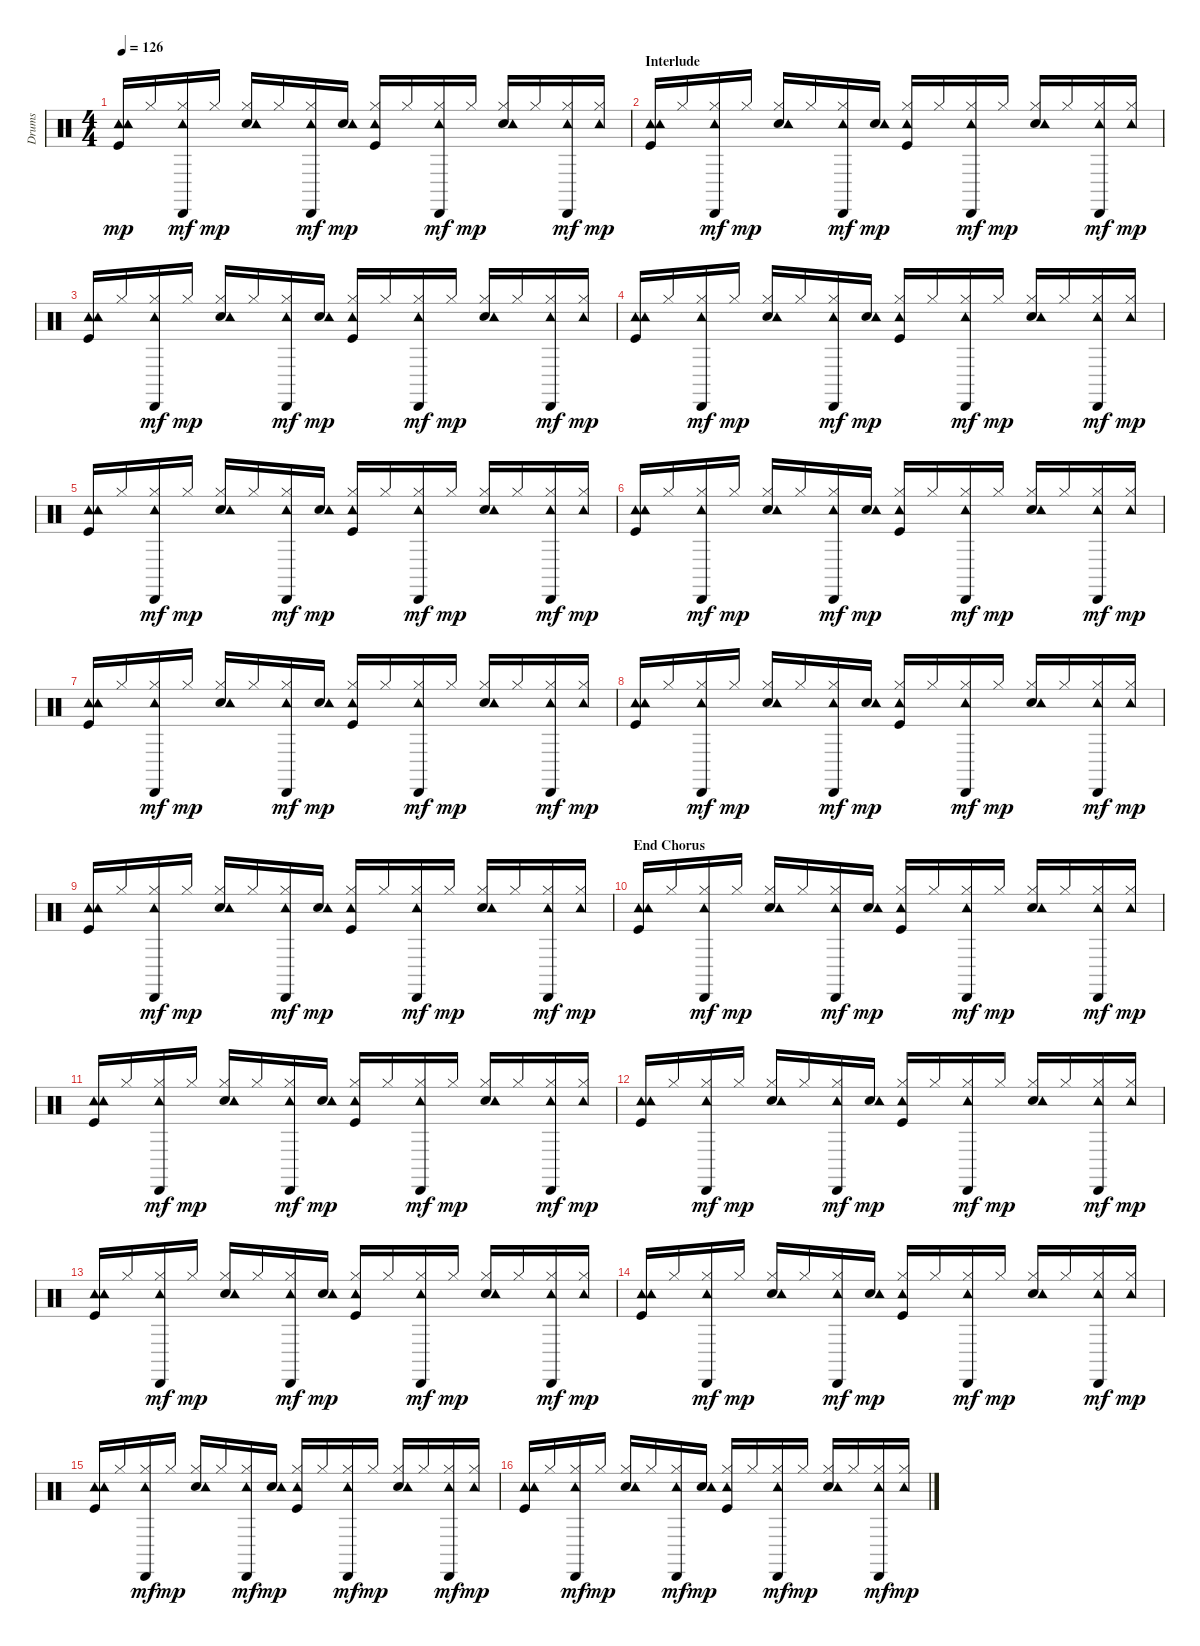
\track ("Drums" "Drums") {instrument percussion}
\staff {score}
\articulation defaults
\ts (4 4)
\tempo 126
\clef neutral
\ks c
("Kick (hit)" "Tambourine (hit)" "Tambourine (hit)").16{dy mp} "Hi-Hat (closed)".16 ("Hi-Hat (closed)" "Tambourine (hit)" "Cabasa (hit)").16{dy mf} "Hi-Hat (closed)".16{dy mp} ("Snare (hit) 2" "Hi-Hat (closed)" "Tambourine (hit)").16 "Hi-Hat (closed)".16 ("Hi-Hat (closed)" "Tambourine (hit)" "Cabasa (hit)").16{dy mf} ("Snare (hit) 2" "Tambourine (hit)").16{dy mp} ("Kick (hit)" "Hi-Hat (closed)" "Tambourine (hit)").16 "Hi-Hat (closed)".16 ("Hi-Hat (closed)" "Tambourine (hit)" "Cabasa (hit)").16{dy mf} "Hi-Hat (closed)".16{dy mp} ("Snare (hit) 2" "Hi-Hat (closed)" "Tambourine (hit)").16 "Hi-Hat (closed)".16 ("Hi-Hat (closed)" "Tambourine (hit)" "Cabasa (hit)").16{dy mf} ("Hi-Hat (closed)" "Tambourine (hit)").16{dy mp} |
\section ("" "Interlude")
("Kick (hit)" "Tambourine (hit)" "Tambourine (hit)").16 "Hi-Hat (closed)".16 ("Hi-Hat (closed)" "Tambourine (hit)" "Cabasa (hit)").16{dy mf} "Hi-Hat (closed)".16{dy mp} ("Snare (hit) 2" "Hi-Hat (closed)" "Tambourine (hit)").16 "Hi-Hat (closed)".16 ("Hi-Hat (closed)" "Tambourine (hit)" "Cabasa (hit)").16{dy mf} ("Snare (hit) 2" "Tambourine (hit)").16{dy mp} ("Kick (hit)" "Hi-Hat (closed)" "Tambourine (hit)").16 "Hi-Hat (closed)".16 ("Hi-Hat (closed)" "Tambourine (hit)" "Cabasa (hit)").16{dy mf} "Hi-Hat (closed)".16{dy mp} ("Snare (hit) 2" "Hi-Hat (closed)" "Tambourine (hit)").16 "Hi-Hat (closed)".16 ("Hi-Hat (closed)" "Tambourine (hit)" "Cabasa (hit)").16{dy mf} ("Hi-Hat (closed)" "Tambourine (hit)").16{dy mp} |
("Kick (hit)" "Tambourine (hit)" "Tambourine (hit)").16 "Hi-Hat (closed)".16 ("Hi-Hat (closed)" "Tambourine (hit)" "Cabasa (hit)").16{dy mf} "Hi-Hat (closed)".16{dy mp} ("Snare (hit) 2" "Hi-Hat (closed)" "Tambourine (hit)").16 "Hi-Hat (closed)".16 ("Hi-Hat (closed)" "Tambourine (hit)" "Cabasa (hit)").16{dy mf} ("Snare (hit) 2" "Tambourine (hit)").16{dy mp} ("Kick (hit)" "Hi-Hat (closed)" "Tambourine (hit)").16 "Hi-Hat (closed)".16 ("Hi-Hat (closed)" "Tambourine (hit)" "Cabasa (hit)").16{dy mf} "Hi-Hat (closed)".16{dy mp} ("Snare (hit) 2" "Hi-Hat (closed)" "Tambourine (hit)").16 "Hi-Hat (closed)".16 ("Hi-Hat (closed)" "Tambourine (hit)" "Cabasa (hit)").16{dy mf} ("Hi-Hat (closed)" "Tambourine (hit)").16{dy mp} |
("Kick (hit)" "Tambourine (hit)" "Tambourine (hit)").16 "Hi-Hat (closed)".16 ("Hi-Hat (closed)" "Tambourine (hit)" "Cabasa (hit)").16{dy mf} "Hi-Hat (closed)".16{dy mp} ("Snare (hit) 2" "Hi-Hat (closed)" "Tambourine (hit)").16 "Hi-Hat (closed)".16 ("Hi-Hat (closed)" "Tambourine (hit)" "Cabasa (hit)").16{dy mf} ("Snare (hit) 2" "Tambourine (hit)").16{dy mp} ("Kick (hit)" "Hi-Hat (closed)" "Tambourine (hit)").16 "Hi-Hat (closed)".16 ("Hi-Hat (closed)" "Tambourine (hit)" "Cabasa (hit)").16{dy mf} "Hi-Hat (closed)".16{dy mp} ("Snare (hit) 2" "Hi-Hat (closed)" "Tambourine (hit)").16 "Hi-Hat (closed)".16 ("Hi-Hat (closed)" "Tambourine (hit)" "Cabasa (hit)").16{dy mf} ("Hi-Hat (closed)" "Tambourine (hit)").16{dy mp} |
("Kick (hit)" "Tambourine (hit)" "Tambourine (hit)").16 "Hi-Hat (closed)".16 ("Hi-Hat (closed)" "Tambourine (hit)" "Cabasa (hit)").16{dy mf} "Hi-Hat (closed)".16{dy mp} ("Snare (hit) 2" "Hi-Hat (closed)" "Tambourine (hit)").16 "Hi-Hat (closed)".16 ("Hi-Hat (closed)" "Tambourine (hit)" "Cabasa (hit)").16{dy mf} ("Snare (hit) 2" "Tambourine (hit)").16{dy mp} ("Kick (hit)" "Hi-Hat (closed)" "Tambourine (hit)").16 "Hi-Hat (closed)".16 ("Hi-Hat (closed)" "Tambourine (hit)" "Cabasa (hit)").16{dy mf} "Hi-Hat (closed)".16{dy mp} ("Snare (hit) 2" "Hi-Hat (closed)" "Tambourine (hit)").16 "Hi-Hat (closed)".16 ("Hi-Hat (closed)" "Tambourine (hit)" "Cabasa (hit)").16{dy mf} ("Hi-Hat (closed)" "Tambourine (hit)").16{dy mp} |
("Kick (hit)" "Tambourine (hit)" "Tambourine (hit)").16 "Hi-Hat (closed)".16 ("Hi-Hat (closed)" "Tambourine (hit)" "Cabasa (hit)").16{dy mf} "Hi-Hat (closed)".16{dy mp} ("Snare (hit) 2" "Hi-Hat (closed)" "Tambourine (hit)").16 "Hi-Hat (closed)".16 ("Hi-Hat (closed)" "Tambourine (hit)" "Cabasa (hit)").16{dy mf} ("Snare (hit) 2" "Tambourine (hit)").16{dy mp} ("Kick (hit)" "Hi-Hat (closed)" "Tambourine (hit)").16 "Hi-Hat (closed)".16 ("Hi-Hat (closed)" "Tambourine (hit)" "Cabasa (hit)").16{dy mf} "Hi-Hat (closed)".16{dy mp} ("Snare (hit) 2" "Hi-Hat (closed)" "Tambourine (hit)").16 "Hi-Hat (closed)".16 ("Hi-Hat (closed)" "Tambourine (hit)" "Cabasa (hit)").16{dy mf} ("Hi-Hat (closed)" "Tambourine (hit)").16{dy mp} |
("Kick (hit)" "Tambourine (hit)" "Tambourine (hit)").16 "Hi-Hat (closed)".16 ("Hi-Hat (closed)" "Tambourine (hit)" "Cabasa (hit)").16{dy mf} "Hi-Hat (closed)".16{dy mp} ("Snare (hit) 2" "Hi-Hat (closed)" "Tambourine (hit)").16 "Hi-Hat (closed)".16 ("Hi-Hat (closed)" "Tambourine (hit)" "Cabasa (hit)").16{dy mf} ("Snare (hit) 2" "Tambourine (hit)").16{dy mp} ("Kick (hit)" "Hi-Hat (closed)" "Tambourine (hit)").16 "Hi-Hat (closed)".16 ("Hi-Hat (closed)" "Tambourine (hit)" "Cabasa (hit)").16{dy mf} "Hi-Hat (closed)".16{dy mp} ("Snare (hit) 2" "Hi-Hat (closed)" "Tambourine (hit)").16 "Hi-Hat (closed)".16 ("Hi-Hat (closed)" "Tambourine (hit)" "Cabasa (hit)").16{dy mf} ("Hi-Hat (closed)" "Tambourine (hit)").16{dy mp} |
("Kick (hit)" "Tambourine (hit)" "Tambourine (hit)").16 "Hi-Hat (closed)".16 ("Hi-Hat (closed)" "Tambourine (hit)" "Cabasa (hit)").16{dy mf} "Hi-Hat (closed)".16{dy mp} ("Snare (hit) 2" "Hi-Hat (closed)" "Tambourine (hit)").16 "Hi-Hat (closed)".16 ("Hi-Hat (closed)" "Tambourine (hit)" "Cabasa (hit)").16{dy mf} ("Snare (hit) 2" "Tambourine (hit)").16{dy mp} ("Kick (hit)" "Hi-Hat (closed)" "Tambourine (hit)").16 "Hi-Hat (closed)".16 ("Hi-Hat (closed)" "Tambourine (hit)" "Cabasa (hit)").16{dy mf} "Hi-Hat (closed)".16{dy mp} ("Snare (hit) 2" "Hi-Hat (closed)" "Tambourine (hit)").16 "Hi-Hat (closed)".16 ("Hi-Hat (closed)" "Tambourine (hit)" "Cabasa (hit)").16{dy mf} ("Hi-Hat (closed)" "Tambourine (hit)").16{dy mp} |
("Kick (hit)" "Tambourine (hit)" "Tambourine (hit)").16 "Hi-Hat (closed)".16 ("Hi-Hat (closed)" "Tambourine (hit)" "Cabasa (hit)").16{dy mf} "Hi-Hat (closed)".16{dy mp} ("Snare (hit) 2" "Hi-Hat (closed)" "Tambourine (hit)").16 "Hi-Hat (closed)".16 ("Hi-Hat (closed)" "Tambourine (hit)" "Cabasa (hit)").16{dy mf} ("Snare (hit) 2" "Tambourine (hit)").16{dy mp} ("Kick (hit)" "Hi-Hat (closed)" "Tambourine (hit)").16 "Hi-Hat (closed)".16 ("Hi-Hat (closed)" "Tambourine (hit)" "Cabasa (hit)").16{dy mf} "Hi-Hat (closed)".16{dy mp} ("Snare (hit) 2" "Hi-Hat (closed)" "Tambourine (hit)").16 "Hi-Hat (closed)".16 ("Hi-Hat (closed)" "Tambourine (hit)" "Cabasa (hit)").16{dy mf} ("Hi-Hat (closed)" "Tambourine (hit)").16{dy mp} |
\section ("" "End Chorus")
("Kick (hit)" "Tambourine (hit)" "Tambourine (hit)").16 "Hi-Hat (closed)".16 ("Hi-Hat (closed)" "Tambourine (hit)" "Cabasa (hit)").16{dy mf} "Hi-Hat (closed)".16{dy mp} ("Snare (hit) 2" "Hi-Hat (closed)" "Tambourine (hit)").16 "Hi-Hat (closed)".16 ("Hi-Hat (closed)" "Tambourine (hit)" "Cabasa (hit)").16{dy mf} ("Snare (hit) 2" "Tambourine (hit)").16{dy mp} ("Kick (hit)" "Hi-Hat (closed)" "Tambourine (hit)").16 "Hi-Hat (closed)".16 ("Hi-Hat (closed)" "Tambourine (hit)" "Cabasa (hit)").16{dy mf} "Hi-Hat (closed)".16{dy mp} ("Snare (hit) 2" "Hi-Hat (closed)" "Tambourine (hit)").16 "Hi-Hat (closed)".16 ("Hi-Hat (closed)" "Tambourine (hit)" "Cabasa (hit)").16{dy mf} ("Hi-Hat (closed)" "Tambourine (hit)").16{dy mp} |
("Kick (hit)" "Tambourine (hit)" "Tambourine (hit)").16 "Hi-Hat (closed)".16 ("Hi-Hat (closed)" "Tambourine (hit)" "Cabasa (hit)").16{dy mf} "Hi-Hat (closed)".16{dy mp} ("Snare (hit) 2" "Hi-Hat (closed)" "Tambourine (hit)").16 "Hi-Hat (closed)".16 ("Hi-Hat (closed)" "Tambourine (hit)" "Cabasa (hit)").16{dy mf} ("Snare (hit) 2" "Tambourine (hit)").16{dy mp} ("Kick (hit)" "Hi-Hat (closed)" "Tambourine (hit)").16 "Hi-Hat (closed)".16 ("Hi-Hat (closed)" "Tambourine (hit)" "Cabasa (hit)").16{dy mf} "Hi-Hat (closed)".16{dy mp} ("Snare (hit) 2" "Hi-Hat (closed)" "Tambourine (hit)").16 "Hi-Hat (closed)".16 ("Hi-Hat (closed)" "Tambourine (hit)" "Cabasa (hit)").16{dy mf} ("Hi-Hat (closed)" "Tambourine (hit)").16{dy mp} |
("Kick (hit)" "Tambourine (hit)" "Tambourine (hit)").16 "Hi-Hat (closed)".16 ("Hi-Hat (closed)" "Tambourine (hit)" "Cabasa (hit)").16{dy mf} "Hi-Hat (closed)".16{dy mp} ("Snare (hit) 2" "Hi-Hat (closed)" "Tambourine (hit)").16 "Hi-Hat (closed)".16 ("Hi-Hat (closed)" "Tambourine (hit)" "Cabasa (hit)").16{dy mf} ("Snare (hit) 2" "Tambourine (hit)").16{dy mp} ("Kick (hit)" "Hi-Hat (closed)" "Tambourine (hit)").16 "Hi-Hat (closed)".16 ("Hi-Hat (closed)" "Tambourine (hit)" "Cabasa (hit)").16{dy mf} "Hi-Hat (closed)".16{dy mp} ("Snare (hit) 2" "Hi-Hat (closed)" "Tambourine (hit)").16 "Hi-Hat (closed)".16 ("Hi-Hat (closed)" "Tambourine (hit)" "Cabasa (hit)").16{dy mf} ("Hi-Hat (closed)" "Tambourine (hit)").16{dy mp} |
("Kick (hit)" "Tambourine (hit)" "Tambourine (hit)").16 "Hi-Hat (closed)".16 ("Hi-Hat (closed)" "Tambourine (hit)" "Cabasa (hit)").16{dy mf} "Hi-Hat (closed)".16{dy mp} ("Snare (hit) 2" "Hi-Hat (closed)" "Tambourine (hit)").16 "Hi-Hat (closed)".16 ("Hi-Hat (closed)" "Tambourine (hit)" "Cabasa (hit)").16{dy mf} ("Snare (hit) 2" "Tambourine (hit)").16{dy mp} ("Kick (hit)" "Hi-Hat (closed)" "Tambourine (hit)").16 "Hi-Hat (closed)".16 ("Hi-Hat (closed)" "Tambourine (hit)" "Cabasa (hit)").16{dy mf} "Hi-Hat (closed)".16{dy mp} ("Snare (hit) 2" "Hi-Hat (closed)" "Tambourine (hit)").16 "Hi-Hat (closed)".16 ("Hi-Hat (closed)" "Tambourine (hit)" "Cabasa (hit)").16{dy mf} ("Hi-Hat (closed)" "Tambourine (hit)").16{dy mp} |
("Kick (hit)" "Tambourine (hit)" "Tambourine (hit)").16 "Hi-Hat (closed)".16 ("Hi-Hat (closed)" "Tambourine (hit)" "Cabasa (hit)").16{dy mf} "Hi-Hat (closed)".16{dy mp} ("Snare (hit) 2" "Hi-Hat (closed)" "Tambourine (hit)").16 "Hi-Hat (closed)".16 ("Hi-Hat (closed)" "Tambourine (hit)" "Cabasa (hit)").16{dy mf} ("Snare (hit) 2" "Tambourine (hit)").16{dy mp} ("Kick (hit)" "Hi-Hat (closed)" "Tambourine (hit)").16 "Hi-Hat (closed)".16 ("Hi-Hat (closed)" "Tambourine (hit)" "Cabasa (hit)").16{dy mf} "Hi-Hat (closed)".16{dy mp} ("Snare (hit) 2" "Hi-Hat (closed)" "Tambourine (hit)").16 "Hi-Hat (closed)".16 ("Hi-Hat (closed)" "Tambourine (hit)" "Cabasa (hit)").16{dy mf} ("Hi-Hat (closed)" "Tambourine (hit)").16{dy mp} |
("Kick (hit)" "Tambourine (hit)" "Tambourine (hit)").16 "Hi-Hat (closed)".16 ("Hi-Hat (closed)" "Tambourine (hit)" "Cabasa (hit)").16{dy mf} "Hi-Hat (closed)".16{dy mp} ("Snare (hit) 2" "Hi-Hat (closed)" "Tambourine (hit)").16 "Hi-Hat (closed)".16 ("Hi-Hat (closed)" "Tambourine (hit)" "Cabasa (hit)").16{dy mf} ("Snare (hit) 2" "Tambourine (hit)").16{dy mp} ("Kick (hit)" "Hi-Hat (closed)" "Tambourine (hit)").16 "Hi-Hat (closed)".16 ("Hi-Hat (closed)" "Tambourine (hit)" "Cabasa (hit)").16{dy mf} "Hi-Hat (closed)".16{dy mp} ("Snare (hit) 2" "Hi-Hat (closed)" "Tambourine (hit)").16 "Hi-Hat (closed)".16 ("Hi-Hat (closed)" "Tambourine (hit)" "Cabasa (hit)").16{dy mf} ("Hi-Hat (closed)" "Tambourine (hit)").16{dy mp} |
("Kick (hit)" "Tambourine (hit)" "Tambourine (hit)").16 "Hi-Hat (closed)".16 ("Hi-Hat (closed)" "Tambourine (hit)" "Cabasa (hit)").16{dy mf} "Hi-Hat (closed)".16{dy mp} ("Snare (hit) 2" "Hi-Hat (closed)" "Tambourine (hit)").16 "Hi-Hat (closed)".16 ("Hi-Hat (closed)" "Tambourine (hit)" "Cabasa (hit)").16{dy mf} ("Snare (hit) 2" "Tambourine (hit)").16{dy mp} ("Kick (hit)" "Hi-Hat (closed)" "Tambourine (hit)").16 "Hi-Hat (closed)".16 ("Hi-Hat (closed)" "Tambourine (hit)" "Cabasa (hit)").16{dy mf} "Hi-Hat (closed)".16{dy mp} ("Snare (hit) 2" "Hi-Hat (closed)" "Tambourine (hit)").16 "Hi-Hat (closed)".16 ("Hi-Hat (closed)" "Tambourine (hit)" "Cabasa (hit)").16{dy mf} ("Hi-Hat (closed)" "Tambourine (hit)").16{dy mp}
